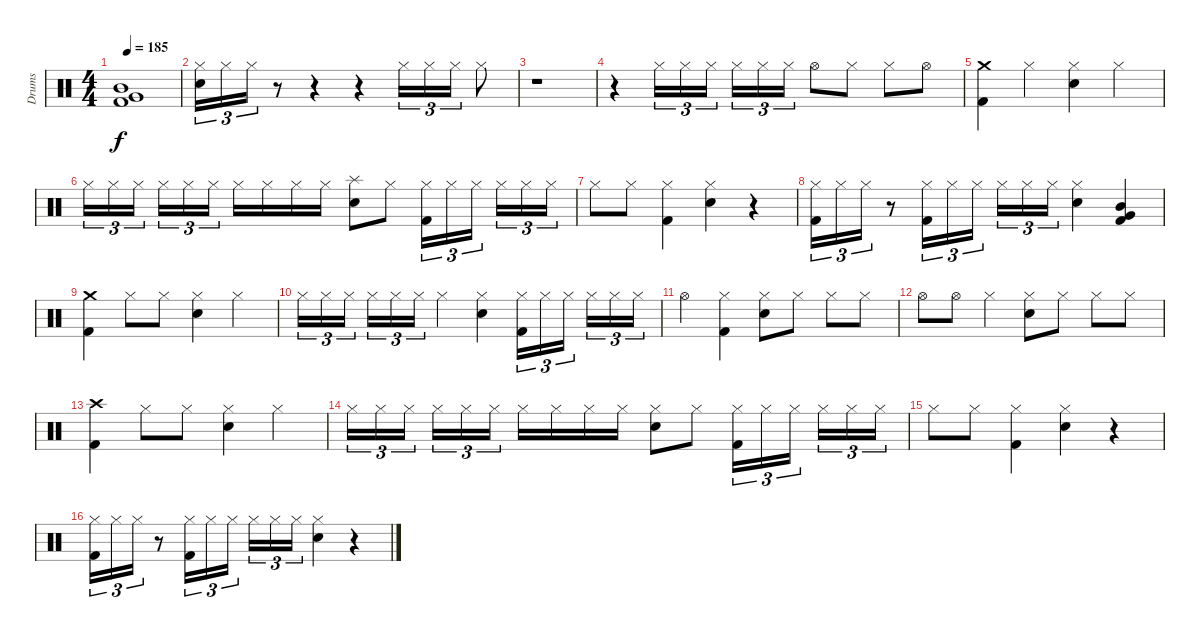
\track ("Drums" "Drums") {instrument percussion}
\staff {score}
\articulation defaults
\ts (4 4)
\tempo 185
\clef neutral
\ks c
("Mid Tom (hit)" "Very Low Tom (hit)" "Kick (hit) 2").1{dy f} |
("Hi-Hat (closed)" "Snare (hit) 2").16{tu (3 2)} "Hi-Hat (closed)".16{tu (3 2)} "Hi-Hat (closed)".16{tu (3 2)} r.8 r.4 r.4 "Hi-Hat (closed)".16{tu (3 2)} "Hi-Hat (closed)".16{tu (3 2)} "Hi-Hat (closed)".16{tu (3 2)} "Hi-Hat (closed)".8 |
r.1 |
r.4 "Hi-Hat (closed)".16{tu (3 2)} "Hi-Hat (closed)".16{tu (3 2)} "Hi-Hat (closed)".16{tu (3 2)} "Hi-Hat (closed)".16{tu (3 2)} "Hi-Hat (closed)".16{tu (3 2)} "Hi-Hat (closed)".16{tu (3 2)} "Hi-Hat (open)".8 "Hi-Hat (closed)".8 "Hi-Hat (closed)".8 "Hi-Hat (open)".8 |
("Crash medium (hit)" "Kick (hit) 2").4 "Hi-Hat (closed)".4 ("Hi-Hat (closed)" "Snare (hit) 2").4 "Hi-Hat (closed)".4 |
"Hi-Hat (closed)".16{tu (3 2)} "Hi-Hat (closed)".16{tu (3 2)} "Hi-Hat (closed)".16{tu (3 2)} "Hi-Hat (closed)".16{tu (3 2)} "Hi-Hat (closed)".16{tu (3 2)} "Hi-Hat (closed)".16{tu (3 2)} "Hi-Hat (closed)".16 "Hi-Hat (closed)".16 "Hi-Hat (closed)".16 "Hi-Hat (closed)".16 ("Splash (hit)" "Snare (hit) 2").8 "Hi-Hat (closed)".8 ("Hi-Hat (closed)" "Kick (hit) 2").16{tu (3 2)} "Hi-Hat (closed)".16{tu (3 2)} "Hi-Hat (closed)".16{tu (3 2)} "Hi-Hat (closed)".16{tu (3 2)} "Hi-Hat (closed)".16{tu (3 2)} "Hi-Hat (closed)".16{tu (3 2)} |
"Hi-Hat (closed)".8 "Hi-Hat (closed)".8 ("Hi-Hat (closed)" "Kick (hit) 2").4 ("Hi-Hat (closed)" "Snare (hit) 2").4 r.4 |
("Hi-Hat (closed)" "Kick (hit) 2").16{tu (3 2)} "Hi-Hat (closed)".16{tu (3 2)} "Hi-Hat (closed)".16{tu (3 2)} r.8 ("Hi-Hat (closed)" "Kick (hit) 2").16{tu (3 2)} "Hi-Hat (closed)".16{tu (3 2)} "Hi-Hat (closed)".16{tu (3 2)} "Hi-Hat (closed)".16{tu (3 2)} "Hi-Hat (closed)".16{tu (3 2)} "Hi-Hat (closed)".16{tu (3 2)} ("Hi-Hat (closed)" "Snare (hit) 2").4 ("Mid Tom (hit)" "Very Low Tom (hit)" "Kick (hit) 2").4 |
("Crash medium (hit)" "Kick (hit) 2").4 "Hi-Hat (closed)".8 "Hi-Hat (closed)".8 ("Hi-Hat (closed)" "Snare (hit) 2").4 "Hi-Hat (closed)".4 |
"Hi-Hat (closed)".16{tu (3 2)} "Hi-Hat (closed)".16{tu (3 2)} "Hi-Hat (closed)".16{tu (3 2)} "Hi-Hat (closed)".16{tu (3 2)} "Hi-Hat (closed)".16{tu (3 2)} "Hi-Hat (closed)".16{tu (3 2)} "Hi-Hat (closed)".4 ("Hi-Hat (closed)" "Snare (hit) 2").4 ("Hi-Hat (closed)" "Kick (hit) 2").16{tu (3 2)} "Hi-Hat (closed)".16{tu (3 2)} "Hi-Hat (closed)".16{tu (3 2)} "Hi-Hat (closed)".16{tu (3 2)} "Hi-Hat (closed)".16{tu (3 2)} "Hi-Hat (closed)".16{tu (3 2)} |
"Hi-Hat (open)".4 ("Hi-Hat (closed)" "Kick (hit) 2").4 ("Hi-Hat (closed)" "Snare (hit) 2").8 "Hi-Hat (closed)".8 "Hi-Hat (closed)".8 "Hi-Hat (closed)".8 |
"Hi-Hat (open)".8 "Hi-Hat (open)".8 "Hi-Hat (closed)".4 ("Hi-Hat (closed)" "Snare (hit) 2").8 "Hi-Hat (closed)".8 "Hi-Hat (closed)".8 "Hi-Hat (closed)".8 |
("Crash high (hit)" "Kick (hit) 2").4 "Hi-Hat (closed)".8 "Hi-Hat (closed)".8 ("Hi-Hat (closed)" "Snare (hit) 2").4 "Hi-Hat (closed)".4 |
"Hi-Hat (closed)".16{tu (3 2)} "Hi-Hat (closed)".16{tu (3 2)} "Hi-Hat (closed)".16{tu (3 2)} "Hi-Hat (closed)".16{tu (3 2)} "Hi-Hat (closed)".16{tu (3 2)} "Hi-Hat (closed)".16{tu (3 2)} "Hi-Hat (closed)".16 "Hi-Hat (closed)".16 "Hi-Hat (closed)".16 "Hi-Hat (closed)".16 ("Hi-Hat (closed)" "Snare (hit) 2").8 "Hi-Hat (closed)".8 ("Hi-Hat (closed)" "Kick (hit) 2").16{tu (3 2)} "Hi-Hat (closed)".16{tu (3 2)} "Hi-Hat (closed)".16{tu (3 2)} "Hi-Hat (closed)".16{tu (3 2)} "Hi-Hat (closed)".16{tu (3 2)} "Hi-Hat (closed)".16{tu (3 2)} |
"Hi-Hat (closed)".8 "Hi-Hat (closed)".8 ("Hi-Hat (closed)" "Kick (hit) 2").4 ("Hi-Hat (closed)" "Snare (hit) 2").4 r.4 |
("Hi-Hat (closed)" "Kick (hit) 2").16{tu (3 2)} "Hi-Hat (closed)".16{tu (3 2)} "Hi-Hat (closed)".16{tu (3 2)} r.8 ("Hi-Hat (closed)" "Kick (hit) 2").16{tu (3 2)} "Hi-Hat (closed)".16{tu (3 2)} "Hi-Hat (closed)".16{tu (3 2)} "Hi-Hat (closed)".16{tu (3 2)} "Hi-Hat (closed)".16{tu (3 2)} "Hi-Hat (closed)".16{tu (3 2)} ("Hi-Hat (closed)" "Snare (hit) 2").4 r.4
